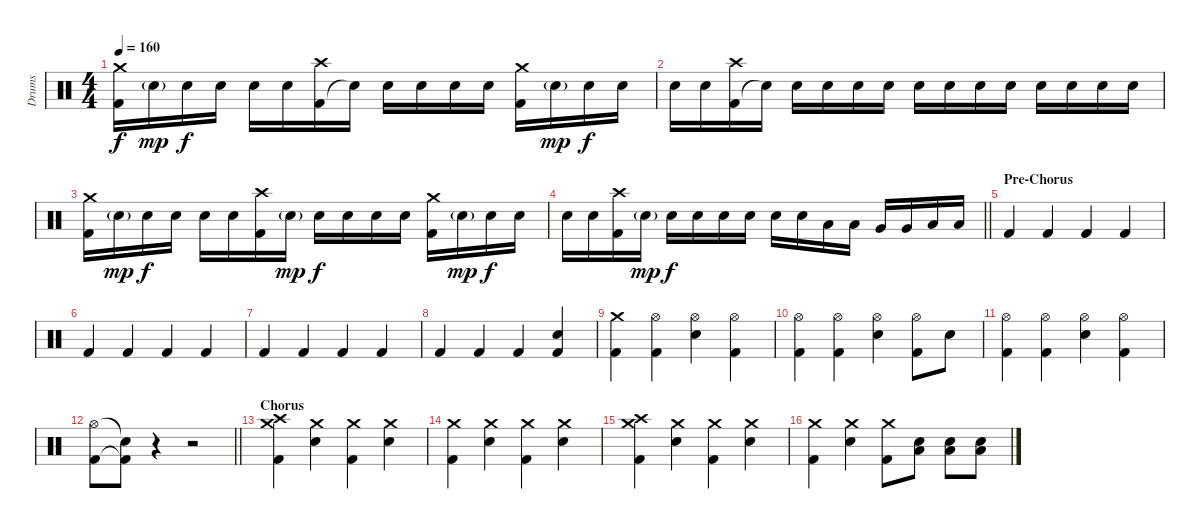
\track ("Drums" "Drums") {instrument percussion}
\staff {score}
\articulation defaults
\ts (4 4)
\tempo 160
\clef neutral
\ks c
("Kick (hit) 2" "Crash medium (hit)").16{dy f} "Electric Snare (hit)"{g}.16{dy mp} "Electric Snare (hit)".16{dy f} "Electric Snare (hit)".16 "Electric Snare (hit)".16 "Electric Snare (hit)".16 ("Kick (hit) 2" "Crash high (hit)").16 "Snare (hit)"{t}.16 "Electric Snare (hit)".16 "Electric Snare (hit)".16 "Electric Snare (hit)".16 "Electric Snare (hit)".16 ("Kick (hit) 2" "Crash medium (hit)").16 "Electric Snare (hit)"{g}.16{dy mp} "Electric Snare (hit)".16{dy f} "Electric Snare (hit)".16 |
"Electric Snare (hit)".16 "Electric Snare (hit)".16 ("Kick (hit) 2" "Crash high (hit)").16 "Snare (hit)"{t}.16 "Electric Snare (hit)".16 "Electric Snare (hit)".16 "Electric Snare (hit)".16 "Electric Snare (hit)".16 "Electric Snare (hit)".16 "Electric Snare (hit)".16 "Electric Snare (hit)".16 "Electric Snare (hit)".16 "Electric Snare (hit)".16 "Electric Snare (hit)".16 "Electric Snare (hit)".16 "Electric Snare (hit)".16 |
("Kick (hit) 2" "Crash medium (hit)").16 "Electric Snare (hit)"{g}.16{dy mp} "Electric Snare (hit)".16{dy f} "Electric Snare (hit)".16 "Electric Snare (hit)".16 "Electric Snare (hit)".16 ("Kick (hit) 2" "Crash high (hit)").16 "Electric Snare (hit)"{g}.16{dy mp} "Electric Snare (hit)".16{dy f} "Electric Snare (hit)".16 "Electric Snare (hit)".16 "Electric Snare (hit)".16 ("Kick (hit) 2" "Crash medium (hit)").16 "Electric Snare (hit)"{g}.16{dy mp} "Electric Snare (hit)".16{dy f} "Electric Snare (hit)".16 |
\barLineRight lightlight "Electric Snare (hit)".16 "Electric Snare (hit)".16
("Kick (hit) 2" "Crash high (hit)").16 "Electric Snare (hit)"{g}.16{dy mp} "Electric Snare (hit)".16{dy f} "Electric Snare (hit)".16 "Electric Snare (hit)".16 "Electric Snare (hit)".16 "Electric Snare (hit)".16 "Electric Snare (hit)".16 "Low Tom (hit)".16 "Low Tom (hit)".16 "Very Low Tom (hit)".16 "Very Low Tom (hit)".16 "Low Floor Tom (hit)".16 "Low Floor Tom (hit)".16 |
\section ("" "Pre-Chorus")
"Kick (hit) 2".4 "Kick (hit) 2".4 "Kick (hit) 2".4 "Kick (hit) 2".4 |
"Kick (hit) 2".4 "Kick (hit) 2".4 "Kick (hit) 2".4 "Kick (hit) 2".4 |
"Kick (hit) 2".4 "Kick (hit) 2".4 "Kick (hit) 2".4 "Kick (hit) 2".4 |
"Kick (hit) 2".4 "Kick (hit) 2".4 "Kick (hit) 2".4 ("Kick (hit) 2" "Electric Snare (hit)").4 |
("Kick (hit) 2" "Crash medium (hit)").4 ("Kick (hit) 2" "Hi-Hat (open)").4 ("Electric Snare (hit)" "Hi-Hat (open)").4 ("Kick (hit) 2" "Hi-Hat (open)").4 |
("Kick (hit) 2" "Hi-Hat (open)").4 ("Kick (hit) 2" "Hi-Hat (open)").4 ("Electric Snare (hit)" "Hi-Hat (open)").4 ("Kick (hit) 2" "Hi-Hat (open)").8 "Electric Snare (hit)".8 |
("Kick (hit) 2" "Hi-Hat (open)").4 ("Kick (hit) 2" "Hi-Hat (open)").4 ("Electric Snare (hit)" "Hi-Hat (open)").4 ("Kick (hit) 2" "Hi-Hat (open)").4 |
\barLineRight lightlight
("Kick (hit) 2" "Hi-Hat (open)").8 ("Kick (hit) 2"{t} "Snare (hit)"{t}).8 r.4 r.2 |
\section ("" "Chorus")
("Kick (hit) 2" "Crash medium (hit)" "Crash high (hit)").4 ("Electric Snare (hit)" "Crash medium (hit)").4 ("Kick (hit) 2" "Crash medium (hit)").4 ("Electric Snare (hit)" "Crash medium (hit)").4 |
("Kick (hit) 2" "Crash medium (hit)").4 ("Electric Snare (hit)" "Crash medium (hit)").4 ("Kick (hit) 2" "Crash medium (hit)").4 ("Electric Snare (hit)" "Crash medium (hit)").4 |
("Kick (hit) 2" "Crash medium (hit)" "Crash high (hit)").4 ("Electric Snare (hit)" "Crash medium (hit)").4 ("Kick (hit) 2" "Crash medium (hit)").4 ("Electric Snare (hit)" "Crash medium (hit)").4 |
("Kick (hit) 2" "Crash medium (hit)").4 ("Electric Snare (hit)" "Crash medium (hit)").4 ("Kick (hit) 2" "Crash medium (hit)").8 ("Electric Snare (hit)" "Low Floor Tom (hit)").8 ("Electric Snare (hit)" "Low Floor Tom (hit)").8 ("Electric Snare (hit)" "Low Floor Tom (hit)").8
